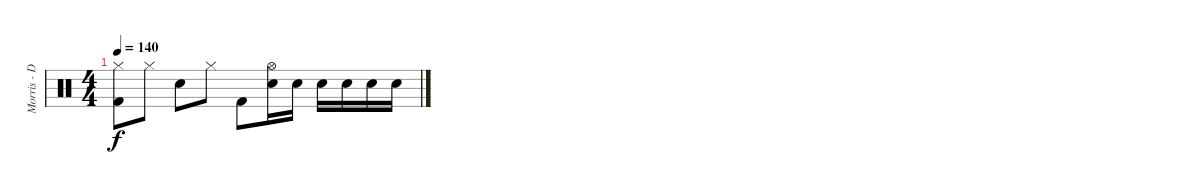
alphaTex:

\track ("Morris - Drums" "Morris - D") {instrument percussion}
\staff {score}
\articulation defaults
\ts (4 4)
\tempo 140
\clef neutral
\ks c
("Kick (hit) 2" "Hi-Hat (closed)").8{dy f} "Hi-Hat (closed)".8 "Snare (hit) 2".8 "Hi-Hat (closed)".8 "Kick (hit) 2".8 ("Electric Snare (hit)" "Hi-Hat (open)").16 "Electric Snare (hit)".16 "Electric Snare (hit)".16 "Electric Snare (hit)".16 "Electric Snare (hit)".16 "Electric Snare (hit)".16
